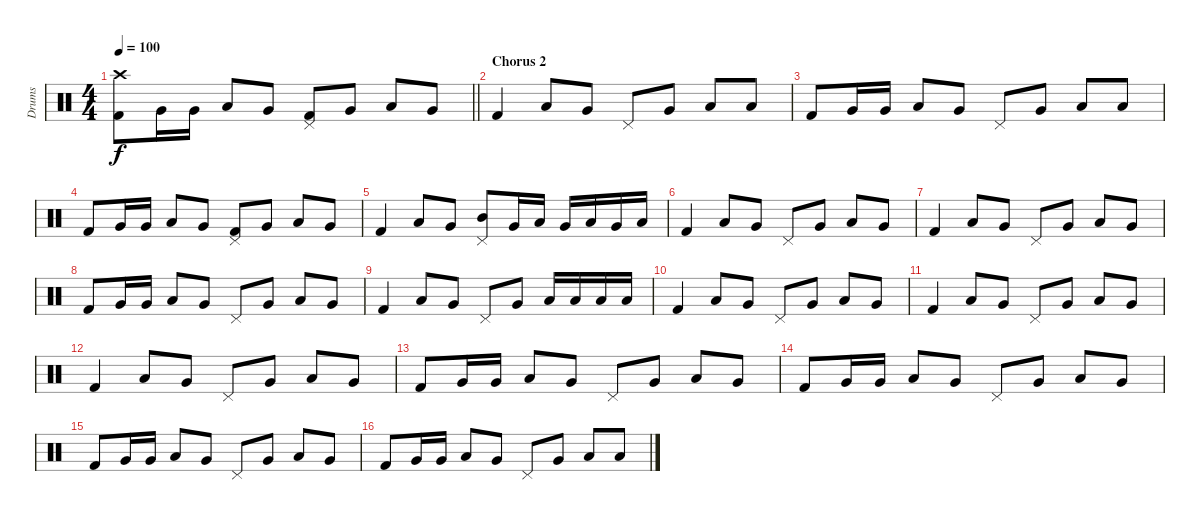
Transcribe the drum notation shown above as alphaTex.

\track ("Drums" "Drums") {instrument percussion}
\staff {score}
\articulation defaults
\ts (4 4)
\tempo 100
\clef neutral
\barLineRight lightlight
\ks c
("Crash high (hit)" "Kick (hit) 2").8{dy f} "Very Low Tom (hit)".16 "Very Low Tom (hit)".16 "Low Tom (hit)".8 "Very Low Tom (hit)".8 ("Pedal Hi-Hat (hit)" "Kick (hit) 2").8 "Very Low Tom (hit)".8 "Low Tom (hit)".8 "Very Low Tom (hit)".8 |
\section ("" "Chorus 2")
"Kick (hit) 2".4 "Low Tom (hit)".8 "Very Low Tom (hit)".8 "Pedal Hi-Hat (hit)".8 "Very Low Tom (hit)".8 "Low Tom (hit)".8 "Low Tom (hit)".8 |
"Kick (hit) 2".8 "Very Low Tom (hit)".16 "Very Low Tom (hit)".16 "Low Tom (hit)".8 "Very Low Tom (hit)".8 "Pedal Hi-Hat (hit)".8 "Very Low Tom (hit)".8 "Low Tom (hit)".8 "Low Tom (hit)".8 |
"Kick (hit) 2".8 "Very Low Tom (hit)".16 "Very Low Tom (hit)".16 "Low Tom (hit)".8 "Very Low Tom (hit)".8 ("Pedal Hi-Hat (hit)" "Kick (hit) 2").8 "Very Low Tom (hit)".8 "Low Tom (hit)".8 "Very Low Tom (hit)".8 |
"Kick (hit) 2".4 "Low Tom (hit)".8 "Very Low Tom (hit)".8 ("Pedal Hi-Hat (hit)" "Mid Tom (hit)").8 "Very Low Tom (hit)".16 "Low Tom (hit)".16 "Very Low Tom (hit)".16 "Low Tom (hit)".16 "Very Low Tom (hit)".16 "Low Tom (hit)".16 |
"Kick (hit) 2".4 "Low Tom (hit)".8 "Very Low Tom (hit)".8 "Pedal Hi-Hat (hit)".8 "Very Low Tom (hit)".8 "Low Tom (hit)".8 "Very Low Tom (hit)".8 |
"Kick (hit) 2".4 "Low Tom (hit)".8 "Very Low Tom (hit)".8 "Pedal Hi-Hat (hit)".8 "Very Low Tom (hit)".8 "Low Tom (hit)".8 "Very Low Tom (hit)".8 |
"Kick (hit) 2".8 "Very Low Tom (hit)".16 "Very Low Tom (hit)".16 "Low Tom (hit)".8 "Very Low Tom (hit)".8 "Pedal Hi-Hat (hit)".8 "Very Low Tom (hit)".8 "Low Tom (hit)".8 "Very Low Tom (hit)".8 |
"Kick (hit) 2".4 "Low Tom (hit)".8 "Very Low Tom (hit)".8 "Pedal Hi-Hat (hit)".8 "Very Low Tom (hit)".8 "Low Tom (hit)".16 "Low Tom (hit)".16 "Low Tom (hit)".16 "Low Tom (hit)".16 |
"Kick (hit) 2".4 "Low Tom (hit)".8 "Very Low Tom (hit)".8 "Pedal Hi-Hat (hit)".8 "Very Low Tom (hit)".8 "Low Tom (hit)".8 "Very Low Tom (hit)".8 |
"Kick (hit) 2".4 "Low Tom (hit)".8 "Very Low Tom (hit)".8 "Pedal Hi-Hat (hit)".8 "Very Low Tom (hit)".8 "Low Tom (hit)".8 "Very Low Tom (hit)".8 |
"Kick (hit) 2".4 "Low Tom (hit)".8 "Very Low Tom (hit)".8 "Pedal Hi-Hat (hit)".8 "Very Low Tom (hit)".8 "Low Tom (hit)".8 "Very Low Tom (hit)".8 |
"Kick (hit) 2".8 "Very Low Tom (hit)".16 "Very Low Tom (hit)".16 "Low Tom (hit)".8 "Very Low Tom (hit)".8 "Pedal Hi-Hat (hit)".8 "Very Low Tom (hit)".8 "Low Tom (hit)".8 "Very Low Tom (hit)".8 |
"Kick (hit) 2".8 "Very Low Tom (hit)".16 "Very Low Tom (hit)".16 "Low Tom (hit)".8 "Very Low Tom (hit)".8 "Pedal Hi-Hat (hit)".8 "Very Low Tom (hit)".8 "Low Tom (hit)".8 "Very Low Tom (hit)".8 |
"Kick (hit) 2".8 "Very Low Tom (hit)".16 "Very Low Tom (hit)".16 "Low Tom (hit)".8 "Very Low Tom (hit)".8 "Pedal Hi-Hat (hit)".8 "Very Low Tom (hit)".8 "Low Tom (hit)".8 "Very Low Tom (hit)".8 |
"Kick (hit) 2".8 "Very Low Tom (hit)".16 "Very Low Tom (hit)".16 "Low Tom (hit)".8 "Very Low Tom (hit)".8 "Pedal Hi-Hat (hit)".8 "Very Low Tom (hit)".8 "Low Tom (hit)".8 "Low Tom (hit)".8
